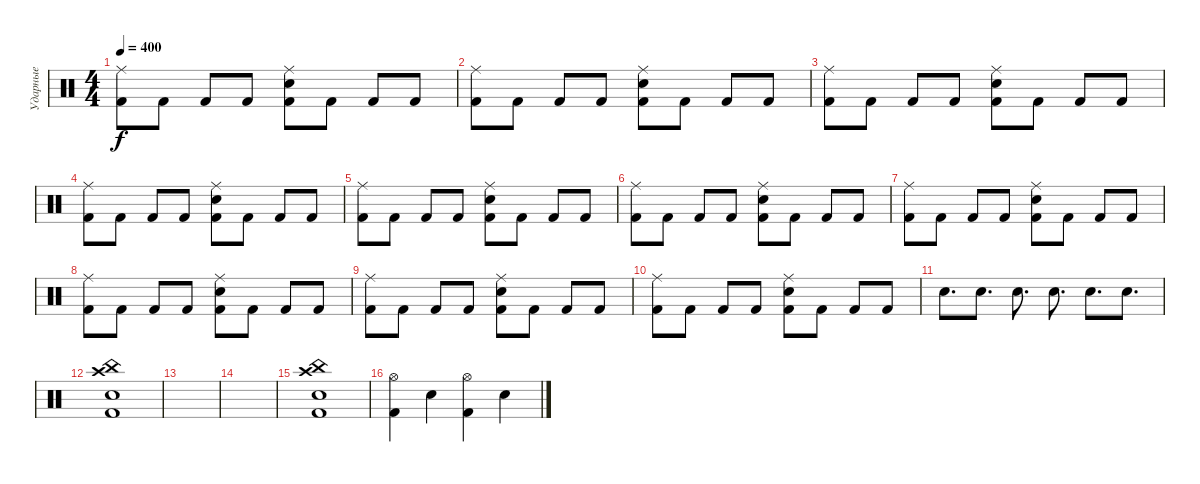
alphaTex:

\track ("Ударные" "Ударные") {instrument percussion}
\staff {score}
\articulation defaults
\ts (4 4)
\tempo 400
\clef neutral
\ks c
("Ride (middle)" "Kick (hit) 2").8{dy f} "Kick (hit) 2".8 "Kick (hit) 2".8 "Kick (hit) 2".8 ("Kick (hit) 2" "Electric Snare (hit)" "Ride (middle)").8 "Kick (hit) 2".8 "Kick (hit) 2".8 "Kick (hit) 2".8 |
("Ride (middle)" "Kick (hit) 2").8 "Kick (hit) 2".8 "Kick (hit) 2".8 "Kick (hit) 2".8 ("Kick (hit) 2" "Electric Snare (hit)" "Ride (middle)").8 "Kick (hit) 2".8 "Kick (hit) 2".8 "Kick (hit) 2".8 |
("Ride (middle)" "Kick (hit) 2").8 "Kick (hit) 2".8 "Kick (hit) 2".8 "Kick (hit) 2".8 ("Kick (hit) 2" "Electric Snare (hit)" "Ride (middle)").8 "Kick (hit) 2".8 "Kick (hit) 2".8 "Kick (hit) 2".8 |
("Ride (middle)" "Kick (hit) 2").8 "Kick (hit) 2".8 "Kick (hit) 2".8 "Kick (hit) 2".8 ("Kick (hit) 2" "Electric Snare (hit)" "Ride (middle)").8 "Kick (hit) 2".8 "Kick (hit) 2".8 "Kick (hit) 2".8 |
("Ride (middle)" "Kick (hit) 2").8 "Kick (hit) 2".8 "Kick (hit) 2".8 "Kick (hit) 2".8 ("Kick (hit) 2" "Electric Snare (hit)" "Ride (middle)").8 "Kick (hit) 2".8 "Kick (hit) 2".8 "Kick (hit) 2".8 |
("Ride (middle)" "Kick (hit) 2").8 "Kick (hit) 2".8 "Kick (hit) 2".8 "Kick (hit) 2".8 ("Kick (hit) 2" "Electric Snare (hit)" "Ride (middle)").8 "Kick (hit) 2".8 "Kick (hit) 2".8 "Kick (hit) 2".8 |
("Ride (middle)" "Kick (hit) 2").8 "Kick (hit) 2".8 "Kick (hit) 2".8 "Kick (hit) 2".8 ("Kick (hit) 2" "Electric Snare (hit)" "Ride (middle)").8 "Kick (hit) 2".8 "Kick (hit) 2".8 "Kick (hit) 2".8 |
("Ride (middle)" "Kick (hit) 2").8 "Kick (hit) 2".8 "Kick (hit) 2".8 "Kick (hit) 2".8 ("Kick (hit) 2" "Electric Snare (hit)" "Ride (middle)").8 "Kick (hit) 2".8 "Kick (hit) 2".8 "Kick (hit) 2".8 |
("Ride (middle)" "Kick (hit) 2").8 "Kick (hit) 2".8 "Kick (hit) 2".8 "Kick (hit) 2".8 ("Kick (hit) 2" "Electric Snare (hit)" "Ride (middle)").8 "Kick (hit) 2".8 "Kick (hit) 2".8 "Kick (hit) 2".8 |
("Ride (middle)" "Kick (hit) 2").8 "Kick (hit) 2".8 "Kick (hit) 2".8 "Kick (hit) 2".8 ("Kick (hit) 2" "Electric Snare (hit)" "Ride (middle)").8 "Kick (hit) 2".8 "Kick (hit) 2".8 "Kick (hit) 2".8 |
"Electric Snare (hit)".8{d} "Electric Snare (hit)".8{d} "Electric Snare (hit)".8{d} "Electric Snare (hit)".8{d} "Electric Snare (hit)".8{d} "Electric Snare (hit)".8{d} |
("Kick (hit) 2" "Electric Snare (hit)" "Crash high (hit)" "China (hit)").1 |
|
|
("Kick (hit) 2" "Electric Snare (hit)" "Crash high (hit)" "China (hit)").1 |
("Kick (hit) 2" "Hi-Hat (open)").4 "Electric Snare (hit)".4 ("Kick (hit) 2" "Hi-Hat (open)").4 "Electric Snare (hit)".4
